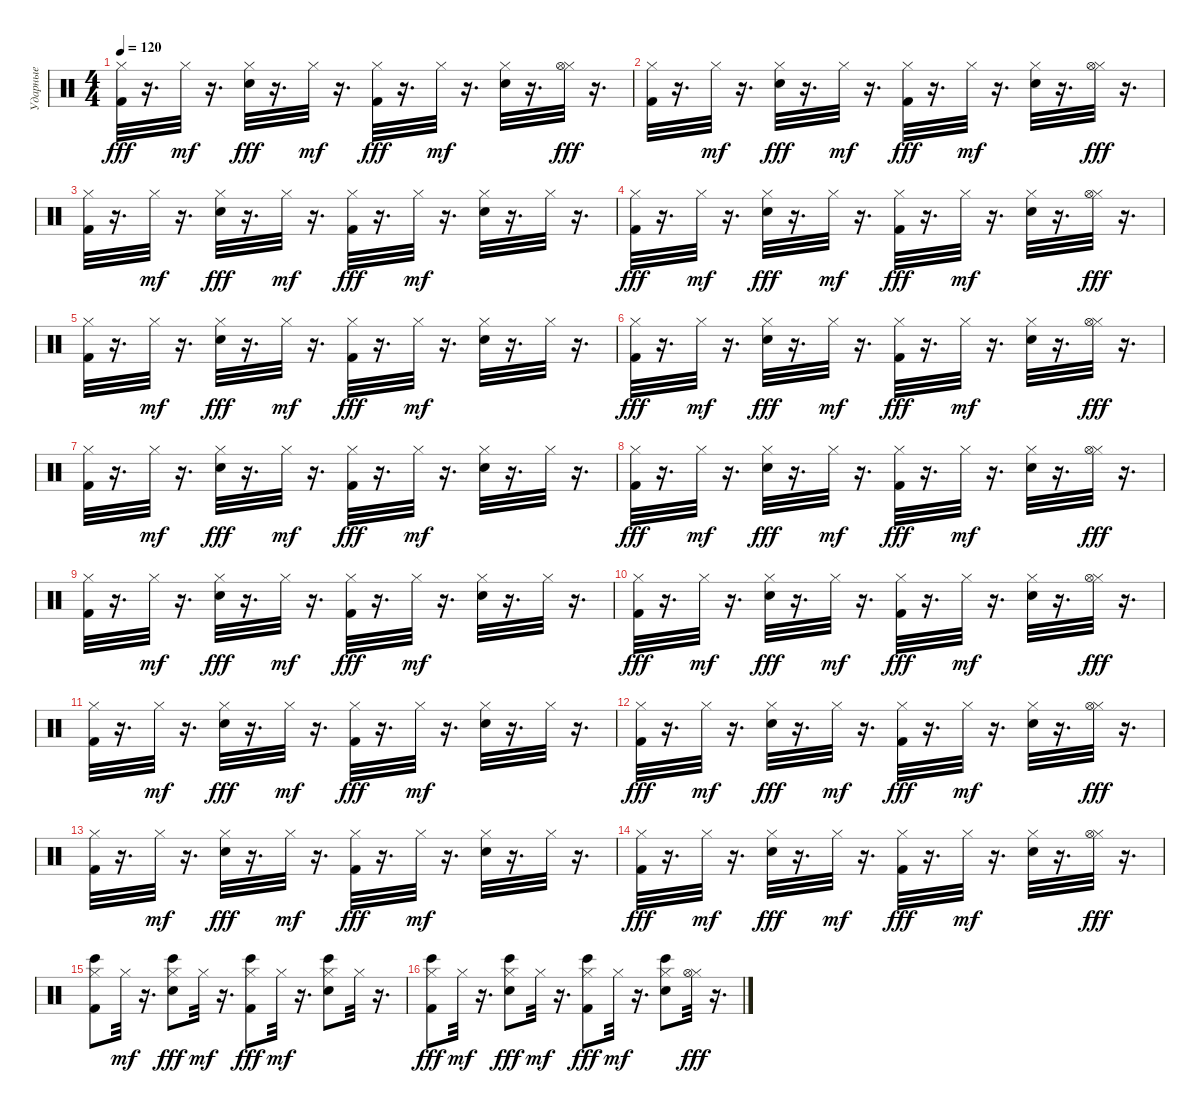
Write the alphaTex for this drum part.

\track ("Ударные" "Ударные") {instrument percussion}
\staff {score}
\articulation defaults
\ts (4 4)
\tempo 120
\clef neutral
\ks c
("Hi-Hat (closed)" "Kick (hit) 2").32{dy fff} r.16{d} "Hi-Hat (closed)".32{dy mf} r.16{d} ("Hi-Hat (closed)" "Snare (hit) 2").32{dy fff} r.16{d} "Hi-Hat (closed)".32{dy mf} r.16{d} ("Hi-Hat (closed)" "Kick (hit) 2").32{dy fff} r.16{d} "Hi-Hat (closed)".32{dy mf} r.16{d} ("Snare (hit) 2" "Hi-Hat (closed)").32 r.16{d} ("Hi-Hat (closed)" "Hi-Hat (open)").32{dy fff} r.16{d} |
("Hi-Hat (closed)" "Kick (hit) 2").32 r.16{d} "Hi-Hat (closed)".32{dy mf} r.16{d} ("Hi-Hat (closed)" "Snare (hit) 2").32{dy fff} r.16{d} "Hi-Hat (closed)".32{dy mf} r.16{d} ("Hi-Hat (closed)" "Kick (hit) 2").32{dy fff} r.16{d} "Hi-Hat (closed)".32{dy mf} r.16{d} ("Snare (hit) 2" "Hi-Hat (closed)").32 r.16{d} ("Hi-Hat (closed)" "Hi-Hat (open)").32{dy fff} r.16{d} |
("Hi-Hat (closed)" "Kick (hit) 2").32 r.16{d} "Hi-Hat (closed)".32{dy mf} r.16{d} ("Hi-Hat (closed)" "Snare (hit) 2").32{dy fff} r.16{d} "Hi-Hat (closed)".32{dy mf} r.16{d} ("Hi-Hat (closed)" "Kick (hit) 2").32{dy fff} r.16{d} "Hi-Hat (closed)".32{dy mf} r.16{d} ("Snare (hit) 2" "Hi-Hat (closed)").32 r.16{d} "Hi-Hat (closed)".32 r.16{d} |
("Hi-Hat (closed)" "Kick (hit) 2").32{dy fff} r.16{d} "Hi-Hat (closed)".32{dy mf} r.16{d} ("Hi-Hat (closed)" "Snare (hit) 2").32{dy fff} r.16{d} "Hi-Hat (closed)".32{dy mf} r.16{d} ("Hi-Hat (closed)" "Kick (hit) 2").32{dy fff} r.16{d} "Hi-Hat (closed)".32{dy mf} r.16{d} ("Snare (hit) 2" "Hi-Hat (closed)").32 r.16{d} ("Hi-Hat (closed)" "Hi-Hat (open)").32{dy fff} r.16{d} |
("Hi-Hat (closed)" "Kick (hit) 2").32 r.16{d} "Hi-Hat (closed)".32{dy mf} r.16{d} ("Hi-Hat (closed)" "Snare (hit) 2").32{dy fff} r.16{d} "Hi-Hat (closed)".32{dy mf} r.16{d} ("Hi-Hat (closed)" "Kick (hit) 2").32{dy fff} r.16{d} "Hi-Hat (closed)".32{dy mf} r.16{d} ("Snare (hit) 2" "Hi-Hat (closed)").32 r.16{d} "Hi-Hat (closed)".32 r.16{d} |
("Hi-Hat (closed)" "Kick (hit) 2").32{dy fff} r.16{d} "Hi-Hat (closed)".32{dy mf} r.16{d} ("Hi-Hat (closed)" "Snare (hit) 2").32{dy fff} r.16{d} "Hi-Hat (closed)".32{dy mf} r.16{d} ("Hi-Hat (closed)" "Kick (hit) 2").32{dy fff} r.16{d} "Hi-Hat (closed)".32{dy mf} r.16{d} ("Snare (hit) 2" "Hi-Hat (closed)").32 r.16{d} ("Hi-Hat (closed)" "Hi-Hat (open)").32{dy fff} r.16{d} |
("Hi-Hat (closed)" "Kick (hit) 2").32 r.16{d} "Hi-Hat (closed)".32{dy mf} r.16{d} ("Hi-Hat (closed)" "Snare (hit) 2").32{dy fff} r.16{d} "Hi-Hat (closed)".32{dy mf} r.16{d} ("Hi-Hat (closed)" "Kick (hit) 2").32{dy fff} r.16{d} "Hi-Hat (closed)".32{dy mf} r.16{d} ("Snare (hit) 2" "Hi-Hat (closed)").32 r.16{d} "Hi-Hat (closed)".32 r.16{d} |
("Hi-Hat (closed)" "Kick (hit) 2").32{dy fff} r.16{d} "Hi-Hat (closed)".32{dy mf} r.16{d} ("Hi-Hat (closed)" "Snare (hit) 2").32{dy fff} r.16{d} "Hi-Hat (closed)".32{dy mf} r.16{d} ("Hi-Hat (closed)" "Kick (hit) 2").32{dy fff} r.16{d} "Hi-Hat (closed)".32{dy mf} r.16{d} ("Snare (hit) 2" "Hi-Hat (closed)").32 r.16{d} ("Hi-Hat (closed)" "Hi-Hat (open)").32{dy fff} r.16{d} |
("Hi-Hat (closed)" "Kick (hit) 2").32 r.16{d} "Hi-Hat (closed)".32{dy mf} r.16{d} ("Hi-Hat (closed)" "Snare (hit) 2").32{dy fff} r.16{d} "Hi-Hat (closed)".32{dy mf} r.16{d} ("Hi-Hat (closed)" "Kick (hit) 2").32{dy fff} r.16{d} "Hi-Hat (closed)".32{dy mf} r.16{d} ("Snare (hit) 2" "Hi-Hat (closed)").32 r.16{d} "Hi-Hat (closed)".32 r.16{d} |
("Hi-Hat (closed)" "Kick (hit) 2").32{dy fff} r.16{d} "Hi-Hat (closed)".32{dy mf} r.16{d} ("Hi-Hat (closed)" "Snare (hit) 2").32{dy fff} r.16{d} "Hi-Hat (closed)".32{dy mf} r.16{d} ("Hi-Hat (closed)" "Kick (hit) 2").32{dy fff} r.16{d} "Hi-Hat (closed)".32{dy mf} r.16{d} ("Snare (hit) 2" "Hi-Hat (closed)").32 r.16{d} ("Hi-Hat (closed)" "Hi-Hat (open)").32{dy fff} r.16{d} |
("Hi-Hat (closed)" "Kick (hit) 2").32 r.16{d} "Hi-Hat (closed)".32{dy mf} r.16{d} ("Hi-Hat (closed)" "Snare (hit) 2").32{dy fff} r.16{d} "Hi-Hat (closed)".32{dy mf} r.16{d} ("Hi-Hat (closed)" "Kick (hit) 2").32{dy fff} r.16{d} "Hi-Hat (closed)".32{dy mf} r.16{d} ("Snare (hit) 2" "Hi-Hat (closed)").32 r.16{d} "Hi-Hat (closed)".32 r.16{d} |
("Hi-Hat (closed)" "Kick (hit) 2").32{dy fff} r.16{d} "Hi-Hat (closed)".32{dy mf} r.16{d} ("Hi-Hat (closed)" "Snare (hit) 2").32{dy fff} r.16{d} "Hi-Hat (closed)".32{dy mf} r.16{d} ("Hi-Hat (closed)" "Kick (hit) 2").32{dy fff} r.16{d} "Hi-Hat (closed)".32{dy mf} r.16{d} ("Snare (hit) 2" "Hi-Hat (closed)").32 r.16{d} ("Hi-Hat (closed)" "Hi-Hat (open)").32{dy fff} r.16{d} |
("Hi-Hat (closed)" "Kick (hit) 2").32 r.16{d} "Hi-Hat (closed)".32{dy mf} r.16{d} ("Hi-Hat (closed)" "Snare (hit) 2").32{dy fff} r.16{d} "Hi-Hat (closed)".32{dy mf} r.16{d} ("Hi-Hat (closed)" "Kick (hit) 2").32{dy fff} r.16{d} "Hi-Hat (closed)".32{dy mf} r.16{d} ("Snare (hit) 2" "Hi-Hat (closed)").32 r.16{d} "Hi-Hat (closed)".32 r.16{d} |
("Hi-Hat (closed)" "Kick (hit) 2").32{dy fff} r.16{d} "Hi-Hat (closed)".32{dy mf} r.16{d} ("Hi-Hat (closed)" "Snare (hit) 2").32{dy fff} r.16{d} "Hi-Hat (closed)".32{dy mf} r.16{d} ("Hi-Hat (closed)" "Kick (hit) 2").32{dy fff} r.16{d} "Hi-Hat (closed)".32{dy mf} r.16{d} ("Snare (hit) 2" "Hi-Hat (closed)").32 r.16{d} ("Hi-Hat (closed)" "Hi-Hat (open)").32{dy fff} r.16{d} |
("Bongo High (hit)" "Hi-Hat (closed)" "Kick (hit) 2").8 "Hi-Hat (closed)".32{dy mf} r.16{d} ("Bongo High (hit)" "Hi-Hat (closed)" "Snare (hit) 2").8{dy fff} "Hi-Hat (closed)".32{dy mf} r.16{d} ("Bongo High (hit)" "Hi-Hat (closed)" "Kick (hit) 2").8{dy fff} "Hi-Hat (closed)".32{dy mf} r.16{d} ("Bongo High (hit)" "Snare (hit) 2" "Hi-Hat (closed)").8 "Hi-Hat (closed)".32 r.16{d} |
("Bongo High (hit)" "Hi-Hat (closed)" "Kick (hit) 2").8{dy fff} "Hi-Hat (closed)".32{dy mf} r.16{d} ("Bongo High (hit)" "Hi-Hat (closed)" "Snare (hit) 2").8{dy fff} "Hi-Hat (closed)".32{dy mf} r.16{d} ("Bongo High (hit)" "Hi-Hat (closed)" "Kick (hit) 2").8{dy fff} "Hi-Hat (closed)".32{dy mf} r.16{d} ("Bongo High (hit)" "Snare (hit) 2" "Hi-Hat (closed)").8 ("Hi-Hat (closed)" "Hi-Hat (open)").32{dy fff} r.16{d}
